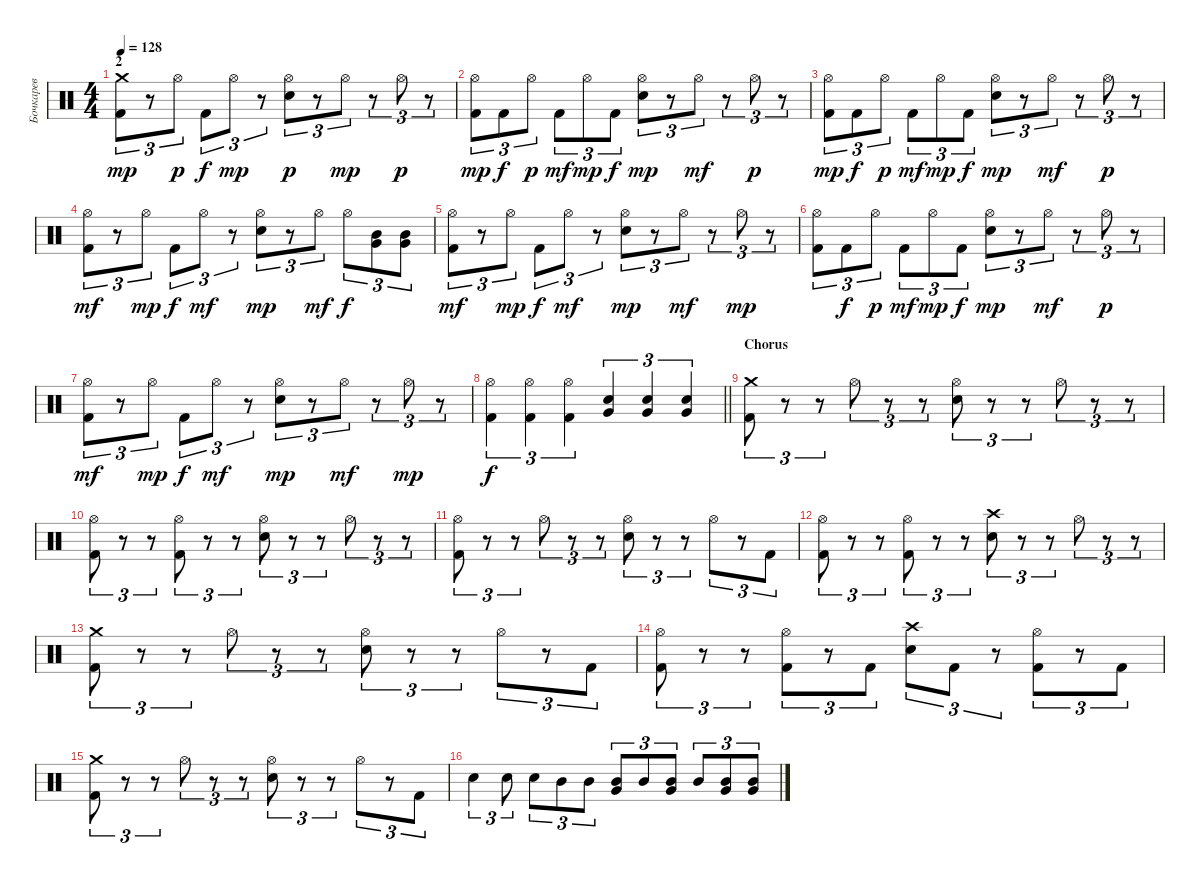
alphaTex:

\track ("Бочкарев" "Бочкарев") {instrument percussion}
\staff
\articulation defaults
\ts (4 4)
\section ("" "2")
\tempo 128
\clef neutral
\ks c
("Crash medium (hit)" "Kick (hit) 2").8{tu (3 2) dy mp} r.8{tu (3 2)} "Hi-Hat (open)".8{tu (3 2) dy p} "Kick (hit) 2".8{tu (3 2) dy f} "Hi-Hat (open)".8{tu (3 2) dy mp} r.8{tu (3 2)} ("Hi-Hat (open)" "Electric Snare (hit)").8{tu (3 2) dy p} r.8{tu (3 2)} "Hi-Hat (open)".8{tu (3 2) dy mp} r.8{tu (3 2)} "Hi-Hat (open)".8{tu (3 2) dy p} r.8{tu (3 2)} |
("Hi-Hat (open)" "Kick (hit) 2").8{tu (3 2) dy mp} "Kick (hit) 2".8{tu (3 2) dy f} "Hi-Hat (open)".8{tu (3 2) dy p} "Kick (hit) 2".8{tu (3 2) dy mf} "Hi-Hat (open)".8{tu (3 2) dy mp} "Kick (hit) 2".8{tu (3 2) dy f} ("Hi-Hat (open)" "Electric Snare (hit)").8{tu (3 2) dy mp} r.8{tu (3 2)} "Hi-Hat (open)".8{tu (3 2) dy mf} r.8{tu (3 2)} "Hi-Hat (open)".8{tu (3 2) dy p} r.8{tu (3 2)} |
("Hi-Hat (open)" "Kick (hit) 2").8{tu (3 2) dy mp} "Kick (hit) 2".8{tu (3 2) dy f} "Hi-Hat (open)".8{tu (3 2) dy p} "Kick (hit) 2".8{tu (3 2) dy mf} "Hi-Hat (open)".8{tu (3 2) dy mp} "Kick (hit) 2".8{tu (3 2) dy f} ("Hi-Hat (open)" "Electric Snare (hit)").8{tu (3 2) dy mp} r.8{tu (3 2)} "Hi-Hat (open)".8{tu (3 2) dy mf} r.8{tu (3 2)} "Hi-Hat (open)".8{tu (3 2) dy p} r.8{tu (3 2)} |
("Hi-Hat (open)" "Kick (hit) 2").8{tu (3 2) dy mf} r.8{tu (3 2)} "Hi-Hat (open)".8{tu (3 2) dy mp} "Kick (hit) 2".8{tu (3 2) dy f} "Hi-Hat (open)".8{tu (3 2) dy mf} r.8{tu (3 2)} ("Hi-Hat (open)" "Electric Snare (hit)").8{tu (3 2) dy mp} r.8{tu (3 2)} "Hi-Hat (open)".8{tu (3 2) dy mf} "Hi-Hat (open)".8{tu (3 2) dy f} ("Very Low Tom (hit)" "Mid Tom (hit)").8{tu (3 2)} ("Very Low Tom (hit)" "Mid Tom (hit)").8{tu (3 2)} |
("Hi-Hat (open)" "Kick (hit) 2").8{tu (3 2) dy mf} r.8{tu (3 2)} "Hi-Hat (open)".8{tu (3 2) dy mp} "Kick (hit) 2".8{tu (3 2) dy f} "Hi-Hat (open)".8{tu (3 2) dy mf} r.8{tu (3 2)} ("Hi-Hat (open)" "Electric Snare (hit)").8{tu (3 2) dy mp} r.8{tu (3 2)} "Hi-Hat (open)".8{tu (3 2) dy mf} r.8{tu (3 2)} "Hi-Hat (open)".8{tu (3 2) dy mp} r.8{tu (3 2)} |
("Hi-Hat (open)" "Kick (hit) 2").8{tu (3 2)} "Kick (hit) 2".8{tu (3 2) dy f} "Hi-Hat (open)".8{tu (3 2) dy p} "Kick (hit) 2".8{tu (3 2) dy mf} "Hi-Hat (open)".8{tu (3 2) dy mp} "Kick (hit) 2".8{tu (3 2) dy f} ("Hi-Hat (open)" "Electric Snare (hit)").8{tu (3 2) dy mp} r.8{tu (3 2)} "Hi-Hat (open)".8{tu (3 2) dy mf} r.8{tu (3 2)} "Hi-Hat (open)".8{tu (3 2) dy p} r.8{tu (3 2)} |
("Hi-Hat (open)" "Kick (hit) 2").8{tu (3 2) dy mf} r.8{tu (3 2)} "Hi-Hat (open)".8{tu (3 2) dy mp} "Kick (hit) 2".8{tu (3 2) dy f} "Hi-Hat (open)".8{tu (3 2) dy mf} r.8{tu (3 2)} ("Hi-Hat (open)" "Electric Snare (hit)").8{tu (3 2) dy mp} r.8{tu (3 2)} "Hi-Hat (open)".8{tu (3 2) dy mf} r.8{tu (3 2)} "Hi-Hat (open)".8{tu (3 2) dy mp} r.8{tu (3 2)} |
\barLineRight lightlight
("Hi-Hat (open)" "Kick (hit) 2").4{tu (3 2) dy f} ("Hi-Hat (open)" "Kick (hit) 2").4{tu (3 2)} ("Hi-Hat (open)" "Kick (hit) 2").4{tu (3 2)} ("Very Low Tom (hit)" "Electric Snare (hit)").4{tu (3 2)} ("Very Low Tom (hit)" "Electric Snare (hit)").4{tu (3 2)} ("Very Low Tom (hit)" "Electric Snare (hit)").4{tu (3 2)} |
\section ("" "Chorus")
("Crash medium (hit)" "Kick (hit) 2").8{tu (3 2)} r.8{tu (3 2)} r.8{tu (3 2)} "Hi-Hat (open)".8{tu (3 2)} r.8{tu (3 2)} r.8{tu (3 2)} ("Hi-Hat (open)" "Electric Snare (hit)").8{tu (3 2)} r.8{tu (3 2)} r.8{tu (3 2)} "Hi-Hat (open)".8{tu (3 2)} r.8{tu (3 2)} r.8{tu (3 2)} |
("Hi-Hat (open)" "Kick (hit) 2").8{tu (3 2)} r.8{tu (3 2)} r.8{tu (3 2)} ("Hi-Hat (open)" "Kick (hit) 2").8{tu (3 2)} r.8{tu (3 2)} r.8{tu (3 2)} ("Hi-Hat (open)" "Electric Snare (hit)").8{tu (3 2)} r.8{tu (3 2)} r.8{tu (3 2)} "Hi-Hat (open)".8{tu (3 2)} r.8{tu (3 2)} r.8{tu (3 2)} |
("Hi-Hat (open)" "Kick (hit) 2").8{tu (3 2)} r.8{tu (3 2)} r.8{tu (3 2)} "Hi-Hat (open)".8{tu (3 2)} r.8{tu (3 2)} r.8{tu (3 2)} ("Hi-Hat (open)" "Electric Snare (hit)").8{tu (3 2)} r.8{tu (3 2)} r.8{tu (3 2)} "Hi-Hat (open)".8{tu (3 2)} r.8{tu (3 2)} "Kick (hit) 2".8{tu (3 2)} |
("Hi-Hat (open)" "Kick (hit) 2").8{tu (3 2)} r.8{tu (3 2)} r.8{tu (3 2)} ("Hi-Hat (open)" "Kick (hit) 2").8{tu (3 2)} r.8{tu (3 2)} r.8{tu (3 2)} ("Crash high (hit)" "Electric Snare (hit)").8{tu (3 2)} r.8{tu (3 2)} r.8{tu (3 2)} "Hi-Hat (open)".8{tu (3 2)} r.8{tu (3 2)} r.8{tu (3 2)} |
("Crash medium (hit)" "Kick (hit) 2").8{tu (3 2)} r.8{tu (3 2)} r.8{tu (3 2)} "Hi-Hat (open)".8{tu (3 2)} r.8{tu (3 2)} r.8{tu (3 2)} ("Hi-Hat (open)" "Electric Snare (hit)").8{tu (3 2)} r.8{tu (3 2)} r.8{tu (3 2)} "Hi-Hat (open)".8{tu (3 2)} r.8{tu (3 2)} "Kick (hit) 2".8{tu (3 2)} |
("Hi-Hat (open)" "Kick (hit) 2").8{tu (3 2)} r.8{tu (3 2)} r.8{tu (3 2)} ("Hi-Hat (open)" "Kick (hit) 2").8{tu (3 2)} r.8{tu (3 2)} "Kick (hit) 2".8{tu (3 2)} ("Crash high (hit)" "Electric Snare (hit)").8{tu (3 2)} "Kick (hit) 2".8{tu (3 2)} r.8{tu (3 2)} ("Hi-Hat (open)" "Kick (hit) 2").8{tu (3 2)} r.8{tu (3 2)} "Kick (hit) 2".8{tu (3 2)} |
("Crash medium (hit)" "Kick (hit) 2").8{tu (3 2)} r.8{tu (3 2)} r.8{tu (3 2)} "Hi-Hat (open)".8{tu (3 2)} r.8{tu (3 2)} r.8{tu (3 2)} ("Hi-Hat (open)" "Electric Snare (hit)").8{tu (3 2)} r.8{tu (3 2)} r.8{tu (3 2)} "Hi-Hat (open)".8{tu (3 2)} r.8{tu (3 2)} "Kick (hit) 2".8{tu (3 2)} |
"Electric Snare (hit)".4{tu (3 2)} "Electric Snare (hit)".8{tu (3 2)} "Electric Snare (hit)".8{tu (3 2)} "Mid Tom (hit)".8{tu (3 2)} "Mid Tom (hit)".8{tu (3 2)} ("Mid Tom (hit)" "Very Low Tom (hit)").8{tu (3 2)} "Mid Tom (hit)".8{tu (3 2)} ("Mid Tom (hit)" "Very Low Tom (hit)").8{tu (3 2)} "Mid Tom (hit)".8{tu (3 2)} ("Mid Tom (hit)" "Very Low Tom (hit)").8{tu (3 2)} ("Mid Tom (hit)" "Very Low Tom (hit)").8{tu (3 2)}
